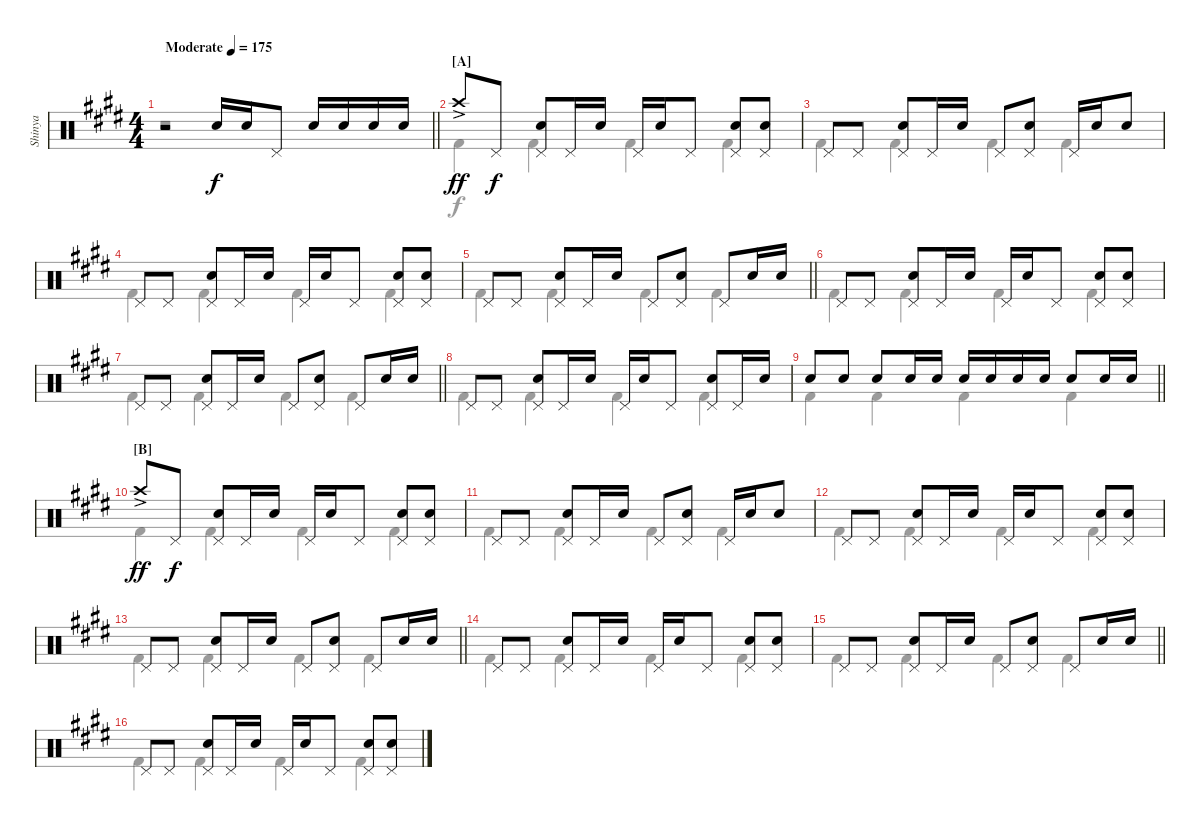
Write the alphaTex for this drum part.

\track ("Shinya" "Shinya") {instrument percussion}
\staff {score}
\articulation defaults
\voice
\ts (4 4)
\tempo (175 "Moderate")
\clef neutral
\barLineRight lightlight
\ks c#minor
r.2{dy f} "Snare (hit) 2".16 "Snare (hit) 2".16 "Pedal Hi-Hat (hit)".8 "Snare (hit) 2".16 "Snare (hit) 2".16 "Snare (hit) 2".16 "Snare (hit) 2".16 |
\section ("" "[A]")
"Crash high (hit)"{ac}.8{dy ff} "Pedal Hi-Hat (hit)".8{dy f} ("Pedal Hi-Hat (hit)" "Snare (hit) 2").8 "Pedal Hi-Hat (hit)".16 "Snare (hit) 2".16 "Pedal Hi-Hat (hit)".16 "Snare (hit) 2".16 "Pedal Hi-Hat (hit)".8 ("Pedal Hi-Hat (hit)" "Snare (hit) 2").8 ("Pedal Hi-Hat (hit)" "Snare (hit) 2").8 |
"Pedal Hi-Hat (hit)".8 "Pedal Hi-Hat (hit)".8 ("Pedal Hi-Hat (hit)" "Snare (hit) 2").8 "Pedal Hi-Hat (hit)".16 "Snare (hit) 2".16 "Pedal Hi-Hat (hit)".8 ("Pedal Hi-Hat (hit)" "Snare (hit) 2").8 "Pedal Hi-Hat (hit)".16 "Snare (hit) 2".16 "Snare (hit) 2".8 |
"Pedal Hi-Hat (hit)".8 "Pedal Hi-Hat (hit)".8 ("Pedal Hi-Hat (hit)" "Snare (hit) 2").8 "Pedal Hi-Hat (hit)".16 "Snare (hit) 2".16 "Pedal Hi-Hat (hit)".16 "Snare (hit) 2".16 "Pedal Hi-Hat (hit)".8 ("Pedal Hi-Hat (hit)" "Snare (hit) 2").8 ("Pedal Hi-Hat (hit)" "Snare (hit) 2").8 |
\barLineRight lightlight "Pedal Hi-Hat (hit)".8 "Pedal Hi-Hat (hit)".8
("Pedal Hi-Hat (hit)" "Snare (hit) 2").8 "Pedal Hi-Hat (hit)".16 "Snare (hit) 2".16 "Pedal Hi-Hat (hit)".8 ("Pedal Hi-Hat (hit)" "Snare (hit) 2").8 "Pedal Hi-Hat (hit)".8 "Snare (hit) 2".16 "Snare (hit) 2".16 |
"Pedal Hi-Hat (hit)".8 "Pedal Hi-Hat (hit)".8 ("Pedal Hi-Hat (hit)" "Snare (hit) 2").8 "Pedal Hi-Hat (hit)".16 "Snare (hit) 2".16 "Pedal Hi-Hat (hit)".16 "Snare (hit) 2".16 "Pedal Hi-Hat (hit)".8 ("Pedal Hi-Hat (hit)" "Snare (hit) 2").8 ("Pedal Hi-Hat (hit)" "Snare (hit) 2").8 |
\barLineRight lightlight "Pedal Hi-Hat (hit)".8 "Pedal Hi-Hat (hit)".8
("Pedal Hi-Hat (hit)" "Snare (hit) 2").8 "Pedal Hi-Hat (hit)".16 "Snare (hit) 2".16 "Pedal Hi-Hat (hit)".8 ("Pedal Hi-Hat (hit)" "Snare (hit) 2").8 "Pedal Hi-Hat (hit)".8 "Snare (hit) 2".16 "Snare (hit) 2".16 |
"Pedal Hi-Hat (hit)".8 "Pedal Hi-Hat (hit)".8 ("Pedal Hi-Hat (hit)" "Snare (hit) 2").8 "Pedal Hi-Hat (hit)".16 "Snare (hit) 2".16 "Pedal Hi-Hat (hit)".16 "Snare (hit) 2".16 "Pedal Hi-Hat (hit)".8 ("Pedal Hi-Hat (hit)" "Snare (hit) 2").8 "Pedal Hi-Hat (hit)".16 "Snare (hit) 2".16 |
\barLineRight lightlight "Snare (hit) 2".8 "Snare (hit) 2".8 "Snare (hit) 2".8 "Snare (hit) 2".16 "Snare (hit) 2".16 "Snare (hit) 2".16 "Snare (hit) 2".16 "Snare (hit) 2".16 "Snare (hit) 2".16 "Snare (hit) 2".8 "Snare (hit) 2".16 "Snare (hit) 2".16
|
\section ("" "[B]")
"Crash high (hit)"{ac}.8{dy ff} "Pedal Hi-Hat (hit)".8{dy f} ("Pedal Hi-Hat (hit)" "Snare (hit) 2").8 "Pedal Hi-Hat (hit)".16 "Snare (hit) 2".16 "Pedal Hi-Hat (hit)".16 "Snare (hit) 2".16 "Pedal Hi-Hat (hit)".8 ("Pedal Hi-Hat (hit)" "Snare (hit) 2").8 ("Pedal Hi-Hat (hit)" "Snare (hit) 2").8 |
"Pedal Hi-Hat (hit)".8 "Pedal Hi-Hat (hit)".8 ("Pedal Hi-Hat (hit)" "Snare (hit) 2").8 "Pedal Hi-Hat (hit)".16 "Snare (hit) 2".16 "Pedal Hi-Hat (hit)".8 ("Pedal Hi-Hat (hit)" "Snare (hit) 2").8 "Pedal Hi-Hat (hit)".16 "Snare (hit) 2".16 "Snare (hit) 2".8 |
"Pedal Hi-Hat (hit)".8 "Pedal Hi-Hat (hit)".8 ("Pedal Hi-Hat (hit)" "Snare (hit) 2").8 "Pedal Hi-Hat (hit)".16 "Snare (hit) 2".16 "Pedal Hi-Hat (hit)".16 "Snare (hit) 2".16 "Pedal Hi-Hat (hit)".8 ("Pedal Hi-Hat (hit)" "Snare (hit) 2").8 ("Pedal Hi-Hat (hit)" "Snare (hit) 2").8 |
\barLineRight lightlight "Pedal Hi-Hat (hit)".8 "Pedal Hi-Hat (hit)".8
("Pedal Hi-Hat (hit)" "Snare (hit) 2").8 "Pedal Hi-Hat (hit)".16 "Snare (hit) 2".16 "Pedal Hi-Hat (hit)".8 ("Pedal Hi-Hat (hit)" "Snare (hit) 2").8 "Pedal Hi-Hat (hit)".8 "Snare (hit) 2".16 "Snare (hit) 2".16 |
"Pedal Hi-Hat (hit)".8 "Pedal Hi-Hat (hit)".8 ("Pedal Hi-Hat (hit)" "Snare (hit) 2").8 "Pedal Hi-Hat (hit)".16 "Snare (hit) 2".16 "Pedal Hi-Hat (hit)".16 "Snare (hit) 2".16 "Pedal Hi-Hat (hit)".8 ("Pedal Hi-Hat (hit)" "Snare (hit) 2").8 ("Pedal Hi-Hat (hit)" "Snare (hit) 2").8 |
\barLineRight lightlight "Pedal Hi-Hat (hit)".8 "Pedal Hi-Hat (hit)".8
("Pedal Hi-Hat (hit)" "Snare (hit) 2").8 "Pedal Hi-Hat (hit)".16 "Snare (hit) 2".16 "Pedal Hi-Hat (hit)".8 ("Pedal Hi-Hat (hit)" "Snare (hit) 2").8 "Pedal Hi-Hat (hit)".8 "Snare (hit) 2".16 "Snare (hit) 2".16 |
"Pedal Hi-Hat (hit)".8 "Pedal Hi-Hat (hit)".8 ("Pedal Hi-Hat (hit)" "Snare (hit) 2").8 "Pedal Hi-Hat (hit)".16 "Snare (hit) 2".16 "Pedal Hi-Hat (hit)".16 "Snare (hit) 2".16 "Pedal Hi-Hat (hit)".8 ("Pedal Hi-Hat (hit)" "Snare (hit) 2").8 ("Pedal Hi-Hat (hit)" "Snare (hit) 2").8
\voice
\clef neutral
\ottava regular
\simile none
\barLineRight lightlight
\ks c#minor
r.1{dy f} |
"Kick (hit) 2".4 "Kick (hit) 2".4 "Kick (hit) 2".4 "Kick (hit) 2".4 |
"Kick (hit) 2".4 "Kick (hit) 2".4 "Kick (hit) 2".4 "Kick (hit) 2".4 |
"Kick (hit) 2".4 "Kick (hit) 2".4 "Kick (hit) 2".4 "Kick (hit) 2".4 |
\barLineRight lightlight "Kick (hit) 2".4 "Kick (hit) 2".4 "Kick (hit) 2".4 "Kick (hit) 2".4
|
"Kick (hit) 2".4 "Kick (hit) 2".4 "Kick (hit) 2".4 "Kick (hit) 2".4 |
\barLineRight lightlight "Kick (hit) 2".4 "Kick (hit) 2".4 "Kick (hit) 2".4 "Kick (hit) 2".4
|
"Kick (hit) 2".4 "Kick (hit) 2".4 "Kick (hit) 2".4 "Kick (hit) 2".4 |
\barLineRight lightlight "Kick (hit) 2".4 "Kick (hit) 2".4 "Kick (hit) 2".4 "Kick (hit) 2".4
|
"Kick (hit) 2".4 "Kick (hit) 2".4 "Kick (hit) 2".4 "Kick (hit) 2".4 |
"Kick (hit) 2".4 "Kick (hit) 2".4 "Kick (hit) 2".4 "Kick (hit) 2".4 |
"Kick (hit) 2".4 "Kick (hit) 2".4 "Kick (hit) 2".4 "Kick (hit) 2".4 |
\barLineRight lightlight "Kick (hit) 2".4 "Kick (hit) 2".4 "Kick (hit) 2".4 "Kick (hit) 2".4
|
"Kick (hit) 2".4 "Kick (hit) 2".4 "Kick (hit) 2".4 "Kick (hit) 2".4 |
\barLineRight lightlight "Kick (hit) 2".4 "Kick (hit) 2".4 "Kick (hit) 2".4 "Kick (hit) 2".4
|
"Kick (hit) 2".4 "Kick (hit) 2".4 "Kick (hit) 2".4 "Kick (hit) 2".4
